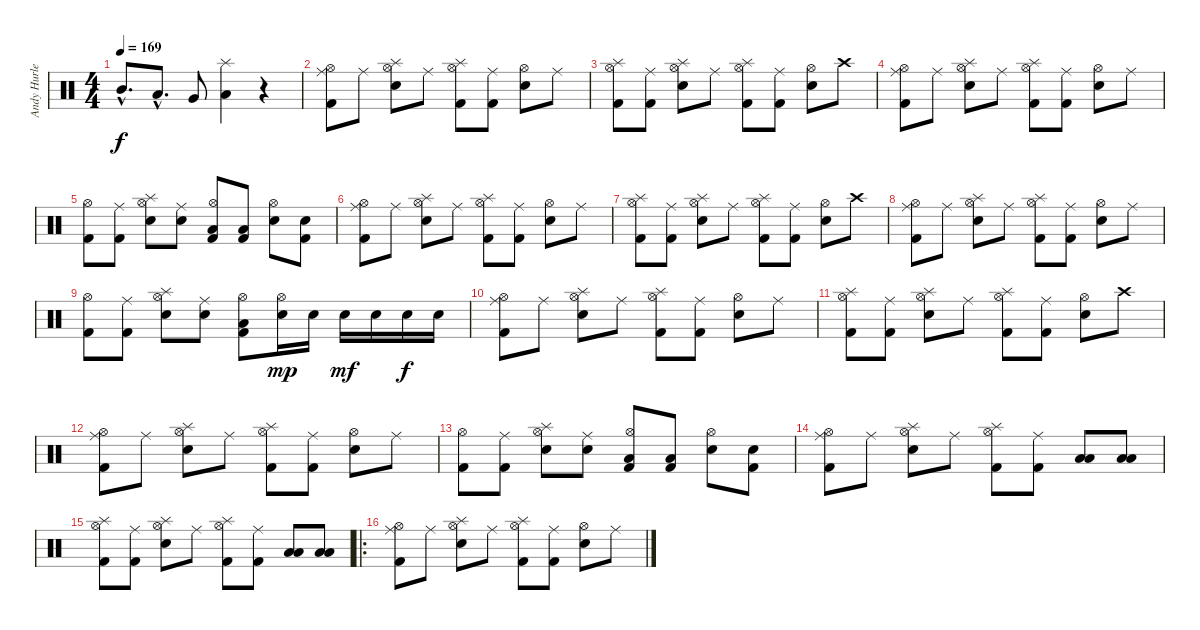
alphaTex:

\track ("Andy Hurley" "Andy Hurle") {instrument percussion}
\staff {score}
\articulation defaults
\ts (4 4)
\tempo 169
\clef neutral
\ks c "Mid Tom (hit)"{hac}.8{d dy f} "Low Tom (hit)"{hac}.8{d} "Very Low Tom (hit)".8
("Splash (hit)" "Low Floor Tom (hit)").4 r.4 |
("Hi-Hat (open)" "Ride (middle)" "Kick (hit) 2").8 "Ride (middle)".8 ("Hi-Hat (open)" "Splash (hit)" "Electric Snare (hit)").8 "Ride (middle)".8 ("Hi-Hat (open)" "Splash (hit)" "Kick (hit) 2").8 ("Ride (middle)" "Kick (hit) 2").8 ("Hi-Hat (open)" "Electric Snare (hit)").8 "Ride (middle)".8 |
("Hi-Hat (open)" "Splash (hit)" "Kick (hit) 2").8 ("Ride (middle)" "Kick (hit) 2").8 ("Hi-Hat (open)" "Splash (hit)" "Electric Snare (hit)").8 "Ride (middle)".8 ("Hi-Hat (open)" "Splash (hit)" "Kick (hit) 2").8 ("Ride (middle)" "Kick (hit) 2").8 ("Hi-Hat (open)" "Electric Snare (hit)").8 "Crash high (hit)".8 |
("Hi-Hat (open)" "Ride (middle)" "Kick (hit) 2").8 "Ride (middle)".8 ("Hi-Hat (open)" "Splash (hit)" "Electric Snare (hit)").8 "Ride (middle)".8 ("Hi-Hat (open)" "Splash (hit)" "Kick (hit) 2").8 ("Ride (middle)" "Kick (hit) 2").8 ("Hi-Hat (open)" "Electric Snare (hit)").8 "Ride (middle)".8 |
("Hi-Hat (open)" "Kick (hit) 2").8 ("Ride (middle)" "Kick (hit) 2").8 ("Hi-Hat (open)" "Splash (hit)" "Electric Snare (hit)").8 ("Ride (middle)" "Electric Snare (hit)").8 ("Hi-Hat (open)" "Kick (hit) 2" "Low Floor Tom (hit)").8 ("Kick (hit) 2" "Low Floor Tom (hit)").8 ("Hi-Hat (open)" "Snare (hit) 2").8 ("Electric Snare (hit)" "Kick (hit) 2").8 |
("Hi-Hat (open)" "Ride (middle)" "Kick (hit) 2").8 "Ride (middle)".8 ("Hi-Hat (open)" "Splash (hit)" "Electric Snare (hit)").8 "Ride (middle)".8 ("Hi-Hat (open)" "Splash (hit)" "Kick (hit) 2").8 ("Ride (middle)" "Kick (hit) 2").8 ("Hi-Hat (open)" "Electric Snare (hit)").8 "Ride (middle)".8 |
("Hi-Hat (open)" "Splash (hit)" "Kick (hit) 2").8 ("Ride (middle)" "Kick (hit) 2").8 ("Hi-Hat (open)" "Splash (hit)" "Electric Snare (hit)").8 "Ride (middle)".8 ("Hi-Hat (open)" "Splash (hit)" "Kick (hit) 2").8 ("Ride (middle)" "Kick (hit) 2").8 ("Hi-Hat (open)" "Electric Snare (hit)").8 "Crash high (hit)".8 |
("Hi-Hat (open)" "Ride (middle)" "Kick (hit) 2").8 "Ride (middle)".8 ("Hi-Hat (open)" "Splash (hit)" "Electric Snare (hit)").8 "Ride (middle)".8 ("Hi-Hat (open)" "Splash (hit)" "Kick (hit) 2").8 ("Ride (middle)" "Kick (hit) 2").8 ("Hi-Hat (open)" "Electric Snare (hit)").8 "Ride (middle)".8 |
("Hi-Hat (open)" "Kick (hit) 2").8 ("Ride (middle)" "Kick (hit) 2").8 ("Hi-Hat (open)" "Splash (hit)" "Electric Snare (hit)").8 ("Ride (middle)" "Electric Snare (hit)").8 ("Hi-Hat (open)" "Kick (hit) 2" "Low Floor Tom (hit)").8 ("Hi-Hat (open)" "Electric Snare (hit)").16{dy mp} "Electric Snare (hit)".16 "Electric Snare (hit)".16{dy mf} "Electric Snare (hit)".16 "Electric Snare (hit)".16{dy f} "Electric Snare (hit)".16 |
("Hi-Hat (open)" "Ride (middle)" "Kick (hit) 2").8 "Ride (middle)".8 ("Hi-Hat (open)" "Splash (hit)" "Electric Snare (hit)").8 "Ride (middle)".8 ("Hi-Hat (open)" "Splash (hit)" "Kick (hit) 2").8 ("Ride (middle)" "Kick (hit) 2").8 ("Hi-Hat (open)" "Electric Snare (hit)").8 "Ride (middle)".8 |
("Hi-Hat (open)" "Splash (hit)" "Kick (hit) 2").8 ("Ride (middle)" "Kick (hit) 2").8 ("Hi-Hat (open)" "Splash (hit)" "Electric Snare (hit)").8 "Ride (middle)".8 ("Hi-Hat (open)" "Splash (hit)" "Kick (hit) 2").8 ("Ride (middle)" "Kick (hit) 2").8 ("Hi-Hat (open)" "Electric Snare (hit)").8 "Crash high (hit)".8 |
("Hi-Hat (open)" "Ride (middle)" "Kick (hit) 2").8 "Ride (middle)".8 ("Hi-Hat (open)" "Splash (hit)" "Electric Snare (hit)").8 "Ride (middle)".8 ("Hi-Hat (open)" "Splash (hit)" "Kick (hit) 2").8 ("Ride (middle)" "Kick (hit) 2").8 ("Hi-Hat (open)" "Electric Snare (hit)").8 "Ride (middle)".8 |
("Hi-Hat (open)" "Kick (hit) 2").8 ("Ride (middle)" "Kick (hit) 2").8 ("Hi-Hat (open)" "Splash (hit)" "Electric Snare (hit)").8 ("Ride (middle)" "Electric Snare (hit)").8 ("Hi-Hat (open)" "Kick (hit) 2" "Low Floor Tom (hit)").8 ("Kick (hit) 2" "Low Floor Tom (hit)").8 ("Hi-Hat (open)" "Snare (hit) 2").8 ("Electric Snare (hit)" "Kick (hit) 2").8 |
("Hi-Hat (open)" "Ride (middle)" "Kick (hit) 2").8 "Ride (middle)".8 ("Hi-Hat (open)" "Splash (hit)" "Electric Snare (hit)").8 "Ride (middle)".8 ("Hi-Hat (open)" "Splash (hit)" "Kick (hit) 2").8 ("Ride (middle)" "Kick (hit) 2").8 ("Low Floor Tom (hit)" "Low Tom (hit)").8 ("Low Floor Tom (hit)" "Low Tom (hit)").8 |
("Hi-Hat (open)" "Splash (hit)" "Kick (hit) 2").8 ("Ride (middle)" "Kick (hit) 2").8 ("Hi-Hat (open)" "Splash (hit)" "Electric Snare (hit)").8 "Ride (middle)".8 ("Hi-Hat (open)" "Splash (hit)" "Kick (hit) 2").8 ("Ride (middle)" "Kick (hit) 2").8 ("Low Floor Tom (hit)" "Low Tom (hit)").8 ("Low Floor Tom (hit)" "Low Tom (hit)").8 |
\ro
("Hi-Hat (open)" "Ride (middle)" "Kick (hit) 2").8 "Ride (middle)".8 ("Hi-Hat (open)" "Splash (hit)" "Electric Snare (hit)").8 "Ride (middle)".8 ("Hi-Hat (open)" "Splash (hit)" "Kick (hit) 2").8 ("Ride (middle)" "Kick (hit) 2").8 ("Hi-Hat (open)" "Electric Snare (hit)").8 "Ride (middle)".8
